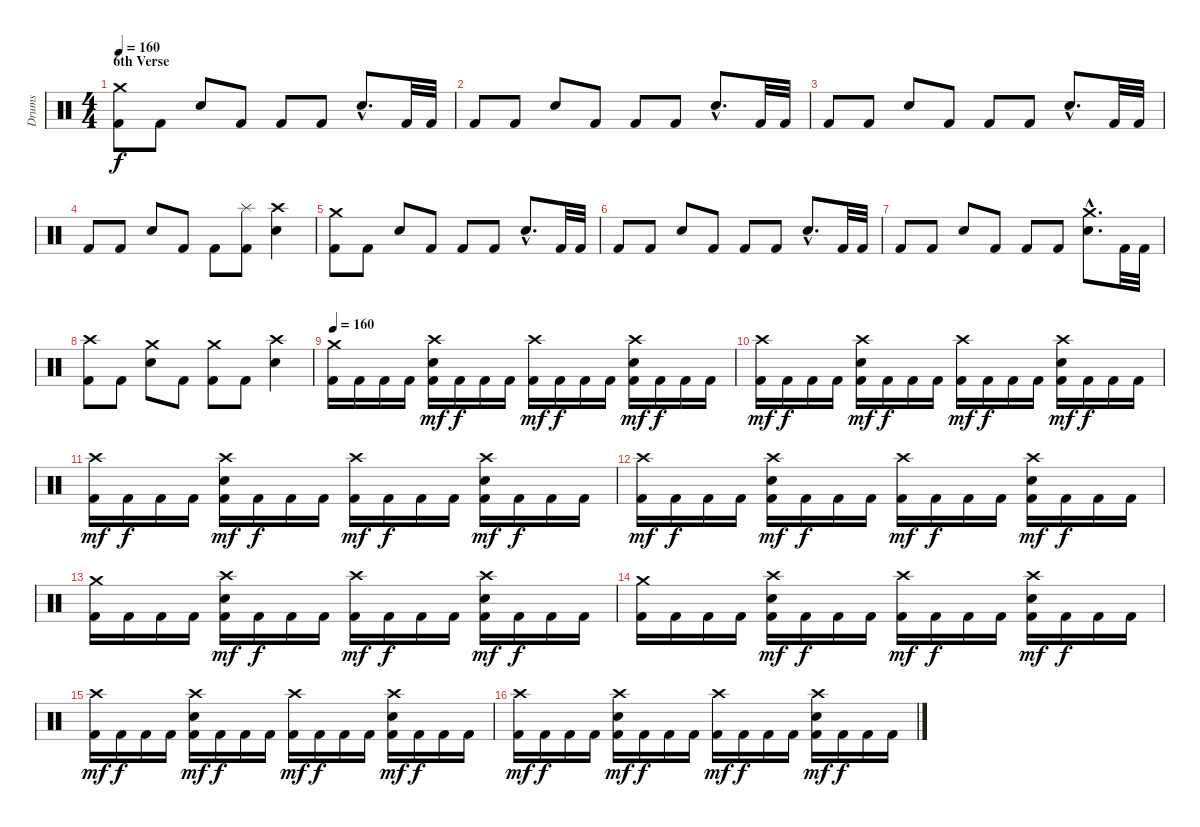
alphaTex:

\track ("Drums" "Drums") {instrument percussion}
\staff {score}
\articulation defaults
\ts (4 4)
\section ("" "6th Verse")
\tempo 160
\clef neutral
\ks c
("Kick (hit) 2" "Crash medium (hit)").8{dy f} "Kick (hit) 2".8 "Electric Snare (hit)".8 "Kick (hit) 2".8 "Kick (hit) 2".8 "Kick (hit) 2".8 "Electric Snare (hit)"{hac}.8{d} "Kick (hit) 2".32 "Kick (hit) 2".32 |
"Kick (hit) 2".8 "Kick (hit) 2".8 "Electric Snare (hit)".8 "Kick (hit) 2".8 "Kick (hit) 2".8 "Kick (hit) 2".8 "Electric Snare (hit)"{hac}.8{d} "Kick (hit) 2".32 "Kick (hit) 2".32 |
"Kick (hit) 2".8 "Kick (hit) 2".8 "Electric Snare (hit)".8 "Kick (hit) 2".8 "Kick (hit) 2".8 "Kick (hit) 2".8 "Electric Snare (hit)"{hac}.8{d} "Kick (hit) 2".32 "Kick (hit) 2".32 |
"Kick (hit) 2".8 "Kick (hit) 2".8 "Electric Snare (hit)".8 "Kick (hit) 2".8 "Kick (hit) 2".8 ("Kick (hit) 2" "Splash (hit)").8 ("Electric Snare (hit)" "Crash high (hit)").4 |
("Kick (hit) 2" "Crash medium (hit)").8 "Kick (hit) 2".8 "Electric Snare (hit)".8 "Kick (hit) 2".8 "Kick (hit) 2".8 "Kick (hit) 2".8 "Electric Snare (hit)"{hac}.8{d} "Kick (hit) 2".32 "Kick (hit) 2".32 |
"Kick (hit) 2".8 "Kick (hit) 2".8 "Electric Snare (hit)".8 "Kick (hit) 2".8 "Kick (hit) 2".8 "Kick (hit) 2".8 "Electric Snare (hit)"{hac}.8{d} "Kick (hit) 2".32 "Kick (hit) 2".32 |
"Kick (hit) 2".8 "Kick (hit) 2".8 "Electric Snare (hit)".8 "Kick (hit) 2".8 "Kick (hit) 2".8 "Kick (hit) 2".8 ("Electric Snare (hit)"{hac} "Crash medium (hit)"{hac}).8{d} "Kick (hit) 2".32 "Kick (hit) 2".32 |
("Kick (hit) 2" "Crash high (hit)").8 "Kick (hit) 2".8 ("Electric Snare (hit)" "Crash medium (hit)").8 "Kick (hit) 2".8 ("Kick (hit) 2" "Crash medium (hit)").8 "Kick (hit) 2".8 ("Electric Snare (hit)" "Crash high (hit)").4 |
\tempo 160
("Kick (hit) 2" "Crash medium (hit)").16 "Kick (hit) 2".16 "Kick (hit) 2".16 "Kick (hit) 2".16 ("Kick (hit) 2" "Electric Snare (hit)" "Crash high (hit)").16{dy mf} "Kick (hit) 2".16{dy f} "Kick (hit) 2".16 "Kick (hit) 2".16 ("Kick (hit) 2" "Crash high (hit)").16{dy mf} "Kick (hit) 2".16{dy f} "Kick (hit) 2".16 "Kick (hit) 2".16 ("Kick (hit) 2" "Electric Snare (hit)" "Crash high (hit)").16{dy mf} "Kick (hit) 2".16{dy f} "Kick (hit) 2".16 "Kick (hit) 2".16 |
("Kick (hit) 2" "Crash high (hit)").16{dy mf} "Kick (hit) 2".16{dy f} "Kick (hit) 2".16 "Kick (hit) 2".16 ("Kick (hit) 2" "Electric Snare (hit)" "Crash high (hit)").16{dy mf} "Kick (hit) 2".16{dy f} "Kick (hit) 2".16 "Kick (hit) 2".16 ("Kick (hit) 2" "Crash high (hit)").16{dy mf} "Kick (hit) 2".16{dy f} "Kick (hit) 2".16 "Kick (hit) 2".16 ("Kick (hit) 2" "Electric Snare (hit)" "Crash high (hit)").16{dy mf} "Kick (hit) 2".16{dy f} "Kick (hit) 2".16 "Kick (hit) 2".16 |
("Kick (hit) 2" "Crash high (hit)").16{dy mf} "Kick (hit) 2".16{dy f} "Kick (hit) 2".16 "Kick (hit) 2".16 ("Kick (hit) 2" "Electric Snare (hit)" "Crash high (hit)").16{dy mf} "Kick (hit) 2".16{dy f} "Kick (hit) 2".16 "Kick (hit) 2".16 ("Kick (hit) 2" "Crash high (hit)").16{dy mf} "Kick (hit) 2".16{dy f} "Kick (hit) 2".16 "Kick (hit) 2".16 ("Kick (hit) 2" "Electric Snare (hit)" "Crash high (hit)").16{dy mf} "Kick (hit) 2".16{dy f} "Kick (hit) 2".16 "Kick (hit) 2".16 |
("Kick (hit) 2" "Crash high (hit)").16{dy mf} "Kick (hit) 2".16{dy f} "Kick (hit) 2".16 "Kick (hit) 2".16 ("Kick (hit) 2" "Electric Snare (hit)" "Crash high (hit)").16{dy mf} "Kick (hit) 2".16{dy f} "Kick (hit) 2".16 "Kick (hit) 2".16 ("Kick (hit) 2" "Crash high (hit)").16{dy mf} "Kick (hit) 2".16{dy f} "Kick (hit) 2".16 "Kick (hit) 2".16 ("Kick (hit) 2" "Electric Snare (hit)" "Crash high (hit)").16{dy mf} "Kick (hit) 2".16{dy f} "Kick (hit) 2".16 "Kick (hit) 2".16 |
("Kick (hit) 2" "Crash medium (hit)").16 "Kick (hit) 2".16 "Kick (hit) 2".16 "Kick (hit) 2".16 ("Kick (hit) 2" "Electric Snare (hit)" "Crash high (hit)").16{dy mf} "Kick (hit) 2".16{dy f} "Kick (hit) 2".16 "Kick (hit) 2".16 ("Kick (hit) 2" "Crash high (hit)").16{dy mf} "Kick (hit) 2".16{dy f} "Kick (hit) 2".16 "Kick (hit) 2".16 ("Kick (hit) 2" "Electric Snare (hit)" "Crash high (hit)").16{dy mf} "Kick (hit) 2".16{dy f} "Kick (hit) 2".16 "Kick (hit) 2".16 |
("Kick (hit) 2" "Crash medium (hit)").16 "Kick (hit) 2".16 "Kick (hit) 2".16 "Kick (hit) 2".16 ("Kick (hit) 2" "Electric Snare (hit)" "Crash high (hit)").16{dy mf} "Kick (hit) 2".16{dy f} "Kick (hit) 2".16 "Kick (hit) 2".16 ("Kick (hit) 2" "Crash high (hit)").16{dy mf} "Kick (hit) 2".16{dy f} "Kick (hit) 2".16 "Kick (hit) 2".16 ("Kick (hit) 2" "Electric Snare (hit)" "Crash high (hit)").16{dy mf} "Kick (hit) 2".16{dy f} "Kick (hit) 2".16 "Kick (hit) 2".16 |
("Kick (hit) 2" "Crash high (hit)").16{dy mf} "Kick (hit) 2".16{dy f} "Kick (hit) 2".16 "Kick (hit) 2".16 ("Kick (hit) 2" "Electric Snare (hit)" "Crash high (hit)").16{dy mf} "Kick (hit) 2".16{dy f} "Kick (hit) 2".16 "Kick (hit) 2".16 ("Kick (hit) 2" "Crash high (hit)").16{dy mf} "Kick (hit) 2".16{dy f} "Kick (hit) 2".16 "Kick (hit) 2".16 ("Kick (hit) 2" "Electric Snare (hit)" "Crash high (hit)").16{dy mf} "Kick (hit) 2".16{dy f} "Kick (hit) 2".16 "Kick (hit) 2".16 |
("Kick (hit) 2" "Crash high (hit)").16{dy mf} "Kick (hit) 2".16{dy f} "Kick (hit) 2".16 "Kick (hit) 2".16 ("Kick (hit) 2" "Electric Snare (hit)" "Crash high (hit)").16{dy mf} "Kick (hit) 2".16{dy f} "Kick (hit) 2".16 "Kick (hit) 2".16 ("Kick (hit) 2" "Crash high (hit)").16{dy mf} "Kick (hit) 2".16{dy f} "Kick (hit) 2".16 "Kick (hit) 2".16 ("Kick (hit) 2" "Electric Snare (hit)" "Crash high (hit)").16{dy mf} "Kick (hit) 2".16{dy f} "Kick (hit) 2".16 "Kick (hit) 2".16
